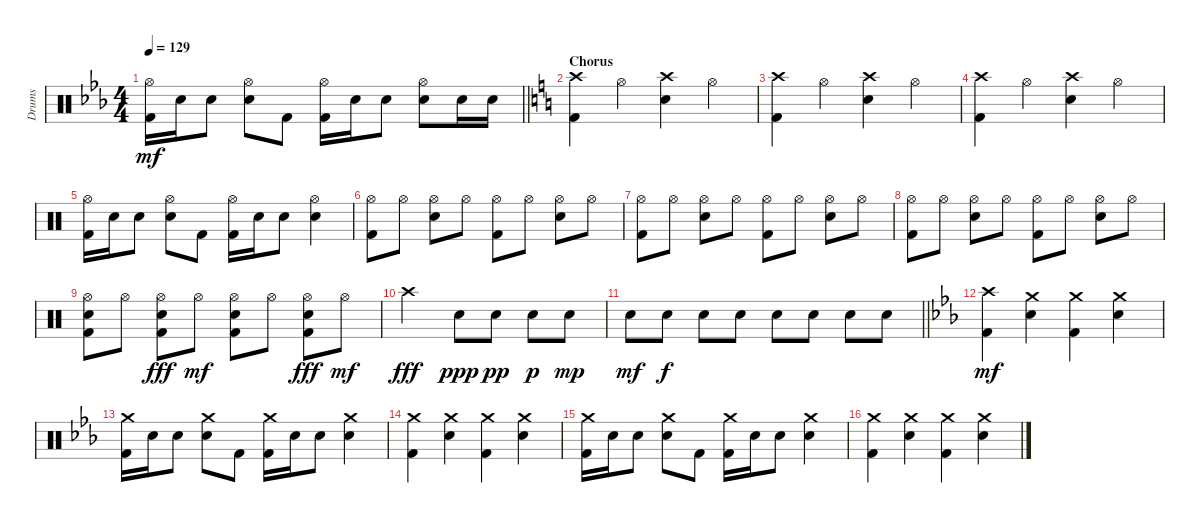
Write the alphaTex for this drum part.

\track ("Drums" "Drums") {instrument percussion}
\staff {score}
\articulation defaults
\ts (4 4)
\tempo 129
\clef neutral
\barLineRight lightlight
\ks eb
("Hi-Hat (open)" "Kick (hit) 2").16{dy mf} "Electric Snare (hit)".16 "Electric Snare (hit)".8 ("Hi-Hat (open)" "Electric Snare (hit)").8 "Kick (hit) 2".8 ("Hi-Hat (open)" "Kick (hit) 2").16 "Electric Snare (hit)".16 "Electric Snare (hit)".8 ("Hi-Hat (open)" "Electric Snare (hit)").8 "Electric Snare (hit)".16 "Electric Snare (hit)".16 |
\section ("" "Chorus")
\ks c
("Crash high (hit)" "Kick (hit) 2").4 "Hi-Hat (open)".4 ("Crash high (hit)" "Electric Snare (hit)").4 "Hi-Hat (open)".4 |
("Crash high (hit)" "Kick (hit) 2").4 "Hi-Hat (open)".4 ("Crash high (hit)" "Electric Snare (hit)").4 "Hi-Hat (open)".4 |
("Crash high (hit)" "Kick (hit) 2").4 "Hi-Hat (open)".4 ("Crash high (hit)" "Electric Snare (hit)").4 "Hi-Hat (open)".4 |
("Hi-Hat (open)" "Kick (hit) 2").16 "Electric Snare (hit)".16 "Electric Snare (hit)".8 ("Hi-Hat (open)" "Electric Snare (hit)").8 "Kick (hit) 2".8 ("Hi-Hat (open)" "Kick (hit) 2").16 "Electric Snare (hit)".16 "Electric Snare (hit)".8 ("Hi-Hat (open)" "Electric Snare (hit)").4 |
("Hi-Hat (open)" "Kick (hit) 2").8 "Hi-Hat (open)".8 ("Hi-Hat (open)" "Electric Snare (hit)").8 "Hi-Hat (open)".8 ("Hi-Hat (open)" "Kick (hit) 2").8 "Hi-Hat (open)".8 ("Hi-Hat (open)" "Electric Snare (hit)").8 "Hi-Hat (open)".8 |
("Hi-Hat (open)" "Kick (hit) 2").8 "Hi-Hat (open)".8 ("Hi-Hat (open)" "Electric Snare (hit)").8 "Hi-Hat (open)".8 ("Hi-Hat (open)" "Kick (hit) 2").8 "Hi-Hat (open)".8 ("Hi-Hat (open)" "Electric Snare (hit)").8 "Hi-Hat (open)".8 |
("Hi-Hat (open)" "Kick (hit) 2").8 "Hi-Hat (open)".8 ("Hi-Hat (open)" "Electric Snare (hit)").8 "Hi-Hat (open)".8 ("Hi-Hat (open)" "Kick (hit) 2").8 "Hi-Hat (open)".8 ("Hi-Hat (open)" "Electric Snare (hit)").8 "Hi-Hat (open)".8 |
("Hi-Hat (open)" "Electric Snare (hit)" "Kick (hit) 2").8 "Hi-Hat (open)".8 ("Hi-Hat (open)" "Electric Snare (hit)" "Kick (hit) 2").8{dy fff} "Hi-Hat (open)".8{dy mf} ("Hi-Hat (open)" "Electric Snare (hit)" "Kick (hit) 2").8 "Hi-Hat (open)".8 ("Hi-Hat (open)" "Electric Snare (hit)" "Kick (hit) 2").8{dy fff} "Hi-Hat (open)".8{dy mf} |
"Crash high (hit)".2{dy fff} "Electric Snare (hit)".8{dy ppp} "Electric Snare (hit)".8{dy pp} "Electric Snare (hit)".8{dy p} "Electric Snare (hit)".8{dy mp} |
\barLineRight lightlight "Electric Snare (hit)".8{dy mf} "Electric Snare (hit)".8{dy f} "Electric Snare (hit)".8 "Electric Snare (hit)".8 "Electric Snare (hit)".8 "Electric Snare (hit)".8 "Electric Snare (hit)".8 "Electric Snare (hit)".8
|
\section ("" "")
\ks eb
("Crash high (hit)" "Kick (hit) 2").4{dy mf} ("Crash medium (hit)" "Electric Snare (hit)").4 ("Crash medium (hit)" "Kick (hit) 2").4 ("Crash medium (hit)" "Electric Snare (hit)").4 |
("Crash medium (hit)" "Kick (hit) 2").16 "Electric Snare (hit)".16 "Electric Snare (hit)".8 ("Crash medium (hit)" "Electric Snare (hit)").8 "Kick (hit) 2".8 ("Crash medium (hit)" "Kick (hit) 2").16 "Electric Snare (hit)".16 "Electric Snare (hit)".8 ("Crash medium (hit)" "Electric Snare (hit)").4 |
("Crash medium (hit)" "Kick (hit) 2").4 ("Crash medium (hit)" "Electric Snare (hit)").4 ("Crash medium (hit)" "Kick (hit) 2").4 ("Crash medium (hit)" "Electric Snare (hit)").4 |
("Crash medium (hit)" "Kick (hit) 2").16 "Electric Snare (hit)".16 "Electric Snare (hit)".8 ("Crash medium (hit)" "Electric Snare (hit)").8 "Kick (hit) 2".8 ("Crash medium (hit)" "Kick (hit) 2").16 "Electric Snare (hit)".16 "Electric Snare (hit)".8 ("Crash medium (hit)" "Electric Snare (hit)").4 |
("Crash medium (hit)" "Kick (hit) 2").4 ("Crash medium (hit)" "Electric Snare (hit)").4 ("Crash medium (hit)" "Kick (hit) 2").4 ("Crash medium (hit)" "Electric Snare (hit)").4
